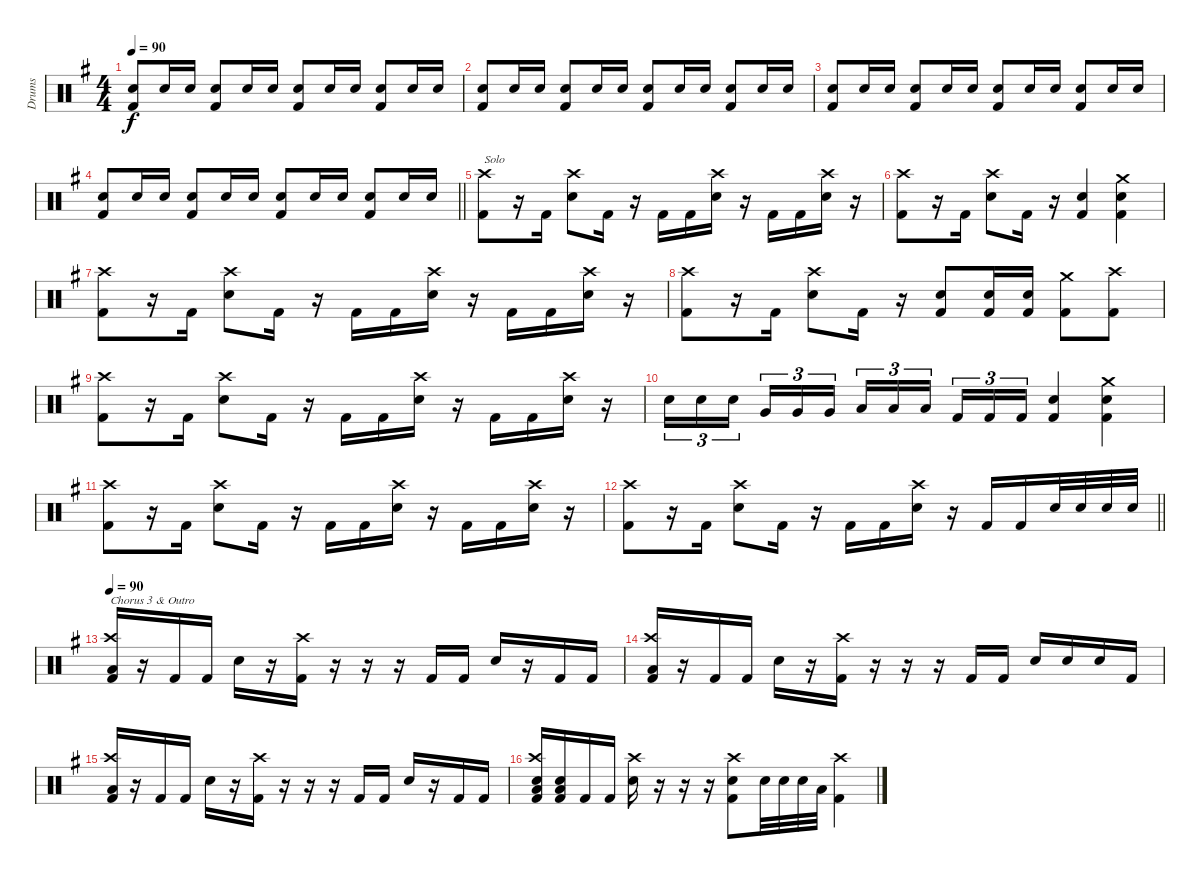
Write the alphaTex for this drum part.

\track ("Drums" "Drums") {instrument percussion}
\staff {score}
\articulation defaults
\ts (4 4)
\tempo 90
\clef neutral
\ks g
("Snare (hit) 2" "Kick (hit) 2").8{dy f} "Snare (hit) 2".16 "Snare (hit) 2".16 ("Snare (hit) 2" "Kick (hit) 2").8 "Snare (hit) 2".16 "Snare (hit) 2".16 ("Snare (hit) 2" "Kick (hit) 2").8 "Snare (hit) 2".16 "Snare (hit) 2".16 ("Snare (hit) 2" "Kick (hit) 2").8 "Snare (hit) 2".16 "Snare (hit) 2".16 |
("Snare (hit) 2" "Kick (hit) 2").8 "Snare (hit) 2".16 "Snare (hit) 2".16 ("Snare (hit) 2" "Kick (hit) 2").8 "Snare (hit) 2".16 "Snare (hit) 2".16 ("Snare (hit) 2" "Kick (hit) 2").8 "Snare (hit) 2".16 "Snare (hit) 2".16 ("Snare (hit) 2" "Kick (hit) 2").8 "Snare (hit) 2".16 "Snare (hit) 2".16 |
("Snare (hit) 2" "Kick (hit) 2").8 "Snare (hit) 2".16 "Snare (hit) 2".16 ("Snare (hit) 2" "Kick (hit) 2").8 "Snare (hit) 2".16 "Snare (hit) 2".16 ("Snare (hit) 2" "Kick (hit) 2").8 "Snare (hit) 2".16 "Snare (hit) 2".16 ("Snare (hit) 2" "Kick (hit) 2").8 "Snare (hit) 2".16 "Snare (hit) 2".16 |
\barLineRight lightlight
("Snare (hit) 2" "Kick (hit) 2").8 "Snare (hit) 2".16 "Snare (hit) 2".16 ("Snare (hit) 2" "Kick (hit) 2").8 "Snare (hit) 2".16 "Snare (hit) 2".16 ("Snare (hit) 2" "Kick (hit) 2").8 "Snare (hit) 2".16 "Snare (hit) 2".16 ("Snare (hit) 2" "Kick (hit) 2").8 "Snare (hit) 2".16 "Snare (hit) 2".16 |
("Crash high (hit)" "Kick (hit) 2").8{txt "Solo"} r.16 "Kick (hit) 2".16 ("Crash high (hit)" "Snare (hit) 2").8 "Kick (hit) 2".16 r.16 "Kick (hit) 2".16 "Kick (hit) 2".16 ("Crash high (hit)" "Snare (hit) 2").16 r.16 "Kick (hit) 2".16 "Kick (hit) 2".16 ("Crash high (hit)" "Snare (hit) 2").16 r.16 |
("Crash high (hit)" "Kick (hit) 2").8 r.16 "Kick (hit) 2".16 ("Crash high (hit)" "Snare (hit) 2").8 "Kick (hit) 2".16 r.16 ("Snare (hit) 2" "Kick (hit) 2").4 ("Crash medium (hit)" "Snare (hit) 2" "Kick (hit) 2").4 |
("Crash high (hit)" "Kick (hit) 2").8 r.16 "Kick (hit) 2".16 ("Crash high (hit)" "Snare (hit) 2").8 "Kick (hit) 2".16 r.16 "Kick (hit) 2".16 "Kick (hit) 2".16 ("Crash high (hit)" "Snare (hit) 2").16 r.16 "Kick (hit) 2".16 "Kick (hit) 2".16 ("Crash high (hit)" "Snare (hit) 2").16 r.16 |
("Crash high (hit)" "Kick (hit) 2").8 r.16 "Kick (hit) 2".16 ("Crash high (hit)" "Snare (hit) 2").8 "Kick (hit) 2".16 r.16 ("Snare (hit) 2" "Kick (hit) 2").8 ("Snare (hit) 2" "Kick (hit) 2").16 ("Snare (hit) 2" "Kick (hit) 2").16 ("Crash medium (hit)" "Kick (hit) 2").8 ("Crash high (hit)" "Kick (hit) 2").8 |
("Crash high (hit)" "Kick (hit) 2").8 r.16 "Kick (hit) 2".16 ("Crash high (hit)" "Snare (hit) 2").8 "Kick (hit) 2".16 r.16 "Kick (hit) 2".16 "Kick (hit) 2".16 ("Crash high (hit)" "Snare (hit) 2").16 r.16 "Kick (hit) 2".16 "Kick (hit) 2".16 ("Crash high (hit)" "Snare (hit) 2").16 r.16 |
"Snare (hit) 2".16{tu (3 2)} "Snare (hit) 2".16{tu (3 2)} "Snare (hit) 2".16{tu (3 2) beam splitsecondary} "Very Low Tom (hit)".16{tu (3 2)} "Very Low Tom (hit)".16{tu (3 2)} "Very Low Tom (hit)".16{tu (3 2)} "Low Floor Tom (hit)".16{tu (3 2)} "Low Floor Tom (hit)".16{tu (3 2)} "Low Floor Tom (hit)".16{tu (3 2) beam splitsecondary} "Kick (hit) 2".16{tu (3 2)} "Kick (hit) 2".16{tu (3 2)} "Kick (hit) 2".16{tu (3 2)} ("Snare (hit) 2" "Kick (hit) 2").4 ("Crash medium (hit)" "Snare (hit) 2" "Kick (hit) 2").4 |
("Crash high (hit)" "Kick (hit) 2").8 r.16 "Kick (hit) 2".16 ("Crash high (hit)" "Snare (hit) 2").8 "Kick (hit) 2".16 r.16 "Kick (hit) 2".16 "Kick (hit) 2".16 ("Crash high (hit)" "Snare (hit) 2").16 r.16 "Kick (hit) 2".16 "Kick (hit) 2".16 ("Crash high (hit)" "Snare (hit) 2").16 r.16 |
\barLineRight lightlight
("Crash high (hit)" "Kick (hit) 2").8 r.16 "Kick (hit) 2".16 ("Crash high (hit)" "Snare (hit) 2").8 "Kick (hit) 2".16 r.16 "Kick (hit) 2".16 "Kick (hit) 2".16 ("Crash high (hit)" "Snare (hit) 2").16 r.16 "Kick (hit) 2".16 "Kick (hit) 2".16 "Snare (hit) 2".32 "Snare (hit) 2".32 "Snare (hit) 2".32 "Snare (hit) 2".32 |
\tempo 90
("Crash high (hit)" "Low Floor Tom (hit)" "Kick (hit) 2").16{txt "Chorus 3 & Outro"} r.16 "Kick (hit) 2".16 "Kick (hit) 2".16 "Snare (hit) 2".16 r.16 ("Crash high (hit)" "Kick (hit) 2").16 r.16 r.16 r.16 "Kick (hit) 2".16 "Kick (hit) 2".16 "Snare (hit) 2".16 r.16 "Kick (hit) 2".16 "Kick (hit) 2".16 |
("Crash high (hit)" "Low Floor Tom (hit)" "Kick (hit) 2").16 r.16 "Kick (hit) 2".16 "Kick (hit) 2".16 "Snare (hit) 2".16 r.16 ("Crash high (hit)" "Kick (hit) 2").16 r.16 r.16 r.16 "Kick (hit) 2".16 "Kick (hit) 2".16 "Snare (hit) 2".16 "Snare (hit) 2".16 "Snare (hit) 2".16 "Kick (hit) 2".16 |
("Crash high (hit)" "Low Floor Tom (hit)" "Kick (hit) 2").16 r.16 "Kick (hit) 2".16 "Kick (hit) 2".16 "Snare (hit) 2".16 r.16 ("Crash high (hit)" "Kick (hit) 2").16 r.16 r.16 r.16 "Kick (hit) 2".16 "Kick (hit) 2".16 "Snare (hit) 2".16 r.16 "Kick (hit) 2".16 "Kick (hit) 2".16 |
("Crash high (hit)" "Snare (hit) 2" "Low Floor Tom (hit)" "Kick (hit) 2").16 ("Snare (hit) 2" "Low Floor Tom (hit)" "Kick (hit) 2").16 "Kick (hit) 2".16 "Kick (hit) 2".16 ("Crash high (hit)" "Snare (hit) 2").16 r.16 r.16 r.16 ("Crash high (hit)" "Snare (hit) 2" "Kick (hit) 2").8 "Snare (hit) 2".32 "Snare (hit) 2".32 "Snare (hit) 2".32 "Low Floor Tom (hit)".32 ("Crash high (hit)" "Kick (hit) 2").4
